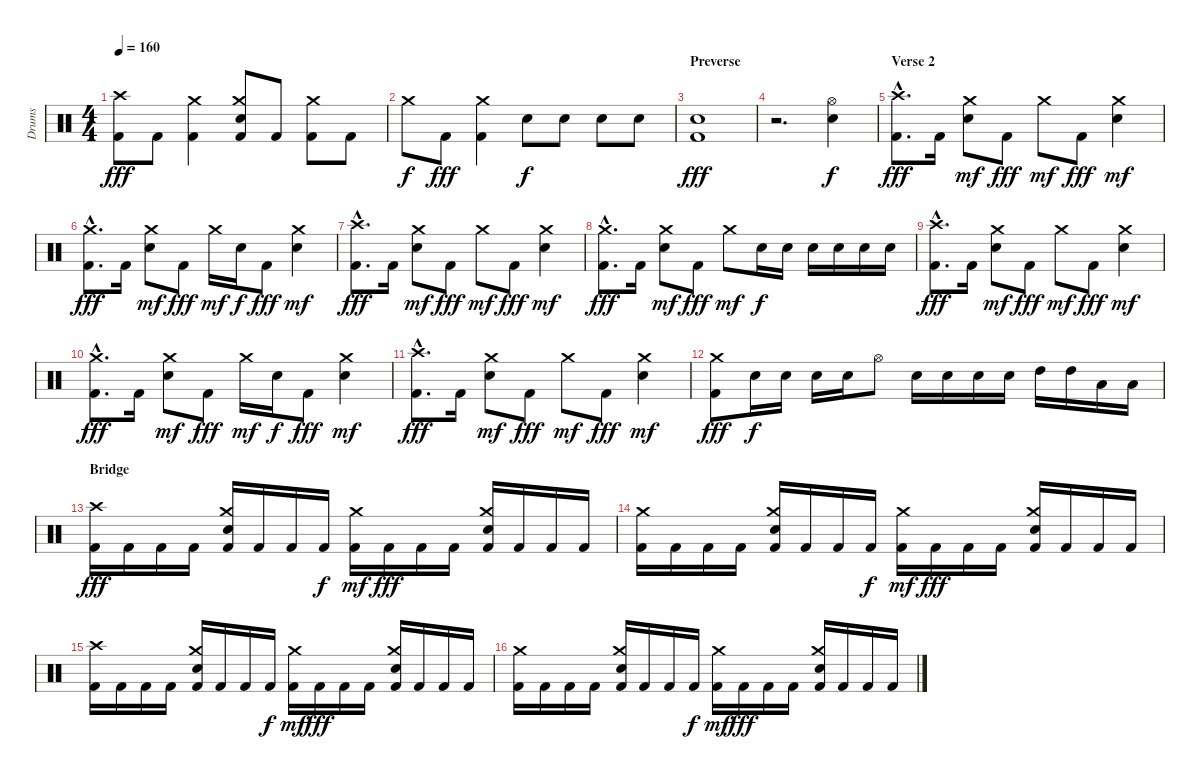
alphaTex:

\track ("Drums" "Drums") {instrument percussion}
\staff {score}
\articulation defaults
\ts (4 4)
\tempo 160
\clef neutral
\ks c
("Crash high (hit)" "Kick (hit) 2").8{dy fff} "Kick (hit) 2".8 ("Crash medium (hit)" "Kick (hit) 2").4 ("Crash medium (hit)" "Snare (hit) 2" "Kick (hit) 2").8 "Kick (hit) 2".8 ("Crash medium (hit)" "Kick (hit) 2").8 "Kick (hit) 2".8 |
"Crash medium (hit)".8{dy f} "Kick (hit) 2".8{dy fff} ("Crash medium (hit)" "Kick (hit) 2").4 "Snare (hit) 2".8{dy f} "Snare (hit) 2".8 "Snare (hit) 2".8 "Snare (hit) 2".8 |
\section ("" "Preverse")
("Snare (hit) 2" "Kick (hit) 2").1{dy fff} |
r.2{d} ("Hi-Hat (open)" "Snare (hit) 2").4{dy f} |
\section ("" "Verse 2")
("Crash high (hit)"{hac} "Kick (hit) 2"{hac}).8{d dy fff} "Kick (hit) 2".16 ("Crash medium (hit)" "Snare (hit) 2").8{dy mf} "Kick (hit) 2".8{dy fff} "Crash medium (hit)".8{dy mf} "Kick (hit) 2".8{dy fff} ("Crash medium (hit)" "Snare (hit) 2").4{dy mf} |
("Crash medium (hit)"{hac} "Kick (hit) 2"{hac}).8{d dy fff} "Kick (hit) 2".16 ("Crash medium (hit)" "Snare (hit) 2").8{dy mf} "Kick (hit) 2".8{dy fff} "Crash medium (hit)".16{dy mf} "Snare (hit) 2".16{dy f} "Kick (hit) 2".8{dy fff} ("Crash medium (hit)" "Snare (hit) 2").4{dy mf} |
("Crash high (hit)"{hac} "Kick (hit) 2"{hac}).8{d dy fff} "Kick (hit) 2".16 ("Crash medium (hit)" "Snare (hit) 2").8{dy mf} "Kick (hit) 2".8{dy fff} "Crash medium (hit)".8{dy mf} "Kick (hit) 2".8{dy fff} ("Crash medium (hit)" "Snare (hit) 2").4{dy mf} |
("Crash medium (hit)"{hac} "Kick (hit) 2"{hac}).8{d dy fff} "Kick (hit) 2".16 ("Crash medium (hit)" "Snare (hit) 2").8{dy mf} "Kick (hit) 2".8{dy fff} "Crash medium (hit)".8{dy mf} "Snare (hit) 2".16{dy f} "Snare (hit) 2".16 "Snare (hit) 2".16 "Snare (hit) 2".16 "Snare (hit) 2".16 "Snare (hit) 2".16 |
("Crash high (hit)"{hac} "Kick (hit) 2"{hac}).8{d dy fff} "Kick (hit) 2".16 ("Crash medium (hit)" "Snare (hit) 2").8{dy mf} "Kick (hit) 2".8{dy fff} "Crash medium (hit)".8{dy mf} "Kick (hit) 2".8{dy fff} ("Crash medium (hit)" "Snare (hit) 2").4{dy mf} |
("Crash medium (hit)"{hac} "Kick (hit) 2"{hac}).8{d dy fff} "Kick (hit) 2".16 ("Crash medium (hit)" "Snare (hit) 2").8{dy mf} "Kick (hit) 2".8{dy fff} "Crash medium (hit)".16{dy mf} "Snare (hit) 2".16{dy f} "Kick (hit) 2".8{dy fff} ("Crash medium (hit)" "Snare (hit) 2").4{dy mf} |
("Crash high (hit)"{hac} "Kick (hit) 2"{hac}).8{d dy fff} "Kick (hit) 2".16 ("Crash medium (hit)" "Snare (hit) 2").8{dy mf} "Kick (hit) 2".8{dy fff} "Crash medium (hit)".8{dy mf} "Kick (hit) 2".8{dy fff} ("Crash medium (hit)" "Snare (hit) 2").4{dy mf} |
("Crash medium (hit)" "Kick (hit) 2").8{dy fff} "Snare (hit) 2".16{dy f} "Snare (hit) 2".16 "Snare (hit) 2".16 "Snare (hit) 2".16 "Hi-Hat (open)".8 "Snare (hit) 2".16 "Snare (hit) 2".16 "Snare (hit) 2".16 "Snare (hit) 2".16 "High Tom (hit)".16 "High Tom (hit)".16 "Low Tom (hit)".16 "Low Tom (hit)".16 |
\section ("" "Bridge")
("Crash high (hit)" "Kick (hit) 2").16{dy fff} "Kick (hit) 2".16 "Kick (hit) 2".16 "Kick (hit) 2".16 ("Crash medium (hit)" "Snare (hit) 2" "Kick (hit) 2").16 "Kick (hit) 2".16 "Kick (hit) 2".16 "Kick (hit) 2".16{dy f} ("Crash medium (hit)" "Kick (hit) 2").16{dy mf} "Kick (hit) 2".16{dy fff} "Kick (hit) 2".16 "Kick (hit) 2".16 ("Crash medium (hit)" "Snare (hit) 2" "Kick (hit) 2").16 "Kick (hit) 2".16 "Kick (hit) 2".16 "Kick (hit) 2".16 |
("Crash medium (hit)" "Kick (hit) 2").16 "Kick (hit) 2".16 "Kick (hit) 2".16 "Kick (hit) 2".16 ("Crash medium (hit)" "Snare (hit) 2" "Kick (hit) 2").16 "Kick (hit) 2".16 "Kick (hit) 2".16 "Kick (hit) 2".16{dy f} ("Crash medium (hit)" "Kick (hit) 2").16{dy mf} "Kick (hit) 2".16{dy fff} "Kick (hit) 2".16 "Kick (hit) 2".16 ("Crash medium (hit)" "Snare (hit) 2" "Kick (hit) 2").16 "Kick (hit) 2".16 "Kick (hit) 2".16 "Kick (hit) 2".16 |
("Crash high (hit)" "Kick (hit) 2").16 "Kick (hit) 2".16 "Kick (hit) 2".16 "Kick (hit) 2".16 ("Crash medium (hit)" "Snare (hit) 2" "Kick (hit) 2").16 "Kick (hit) 2".16 "Kick (hit) 2".16 "Kick (hit) 2".16{dy f} ("Crash medium (hit)" "Kick (hit) 2").16{dy mf} "Kick (hit) 2".16{dy fff} "Kick (hit) 2".16 "Kick (hit) 2".16 ("Crash medium (hit)" "Snare (hit) 2" "Kick (hit) 2").16 "Kick (hit) 2".16 "Kick (hit) 2".16 "Kick (hit) 2".16 |
("Crash medium (hit)" "Kick (hit) 2").16 "Kick (hit) 2".16 "Kick (hit) 2".16 "Kick (hit) 2".16 ("Crash medium (hit)" "Snare (hit) 2" "Kick (hit) 2").16 "Kick (hit) 2".16 "Kick (hit) 2".16 "Kick (hit) 2".16{dy f} ("Crash medium (hit)" "Kick (hit) 2").16{dy mf} "Kick (hit) 2".16{dy fff} "Kick (hit) 2".16 "Kick (hit) 2".16 ("Crash medium (hit)" "Snare (hit) 2" "Kick (hit) 2").16 "Kick (hit) 2".16 "Kick (hit) 2".16 "Kick (hit) 2".16
